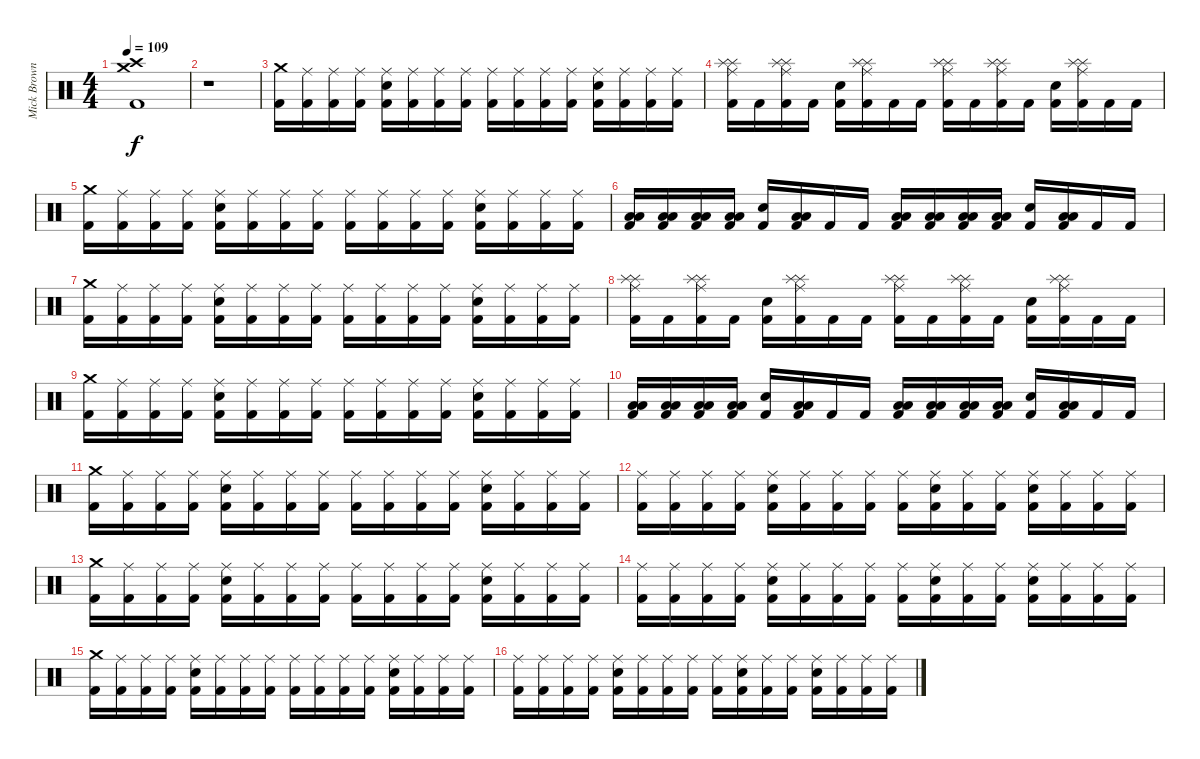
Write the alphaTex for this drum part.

\track ("Mick Brown" "Mick Brown") {instrument percussion}
\staff {score}
\articulation defaults
\ts (4 4)
\tempo 109
\clef neutral
\ks c
("Crash high (hit)" "Crash medium (hit)" "Kick (hit) 2").1{dy f} |
r.1 |
("Crash medium (hit)" "Kick (hit) 2").16 ("Ride (middle)" "Kick (hit) 2").16 ("Ride (middle)" "Kick (hit) 2").16 ("Ride (middle)" "Kick (hit) 2").16 ("Ride (middle)" "Snare (hit) 2" "Kick (hit) 2").16 ("Ride (middle)" "Kick (hit) 2").16 ("Ride (middle)" "Kick (hit) 2").16 ("Ride (middle)" "Kick (hit) 2").16 ("Ride (middle)" "Kick (hit) 2").16 ("Ride (middle)" "Kick (hit) 2").16 ("Ride (middle)" "Kick (hit) 2").16 ("Ride (middle)" "Kick (hit) 2").16 ("Ride (middle)" "Snare (hit) 2" "Kick (hit) 2").16 ("Ride (middle)" "Kick (hit) 2").16 ("Ride (middle)" "Kick (hit) 2").16 ("Ride (middle)" "Kick (hit) 2").16 |
("Splash (hit)" "Ride (middle)" "Splash (hit)" "Kick (hit) 2").16 "Kick (hit) 2".16 ("Splash (hit)" "Ride (middle)" "Splash (hit)" "Kick (hit) 2").16 "Kick (hit) 2".16 ("Snare (hit) 2" "Kick (hit) 2").16 ("Splash (hit)" "Ride (middle)" "Splash (hit)" "Kick (hit) 2").16 "Kick (hit) 2".16 "Kick (hit) 2".16 ("Splash (hit)" "Ride (middle)" "Splash (hit)" "Kick (hit) 2").16 "Kick (hit) 2".16 ("Splash (hit)" "Ride (middle)" "Splash (hit)" "Kick (hit) 2").16 "Kick (hit) 2".16 ("Snare (hit) 2" "Kick (hit) 2").16 ("Splash (hit)" "Ride (middle)" "Splash (hit)" "Kick (hit) 2").16 "Kick (hit) 2".16 "Kick (hit) 2".16 |
("Crash medium (hit)" "Kick (hit) 2").16 ("Ride (middle)" "Kick (hit) 2").16 ("Ride (middle)" "Kick (hit) 2").16 ("Ride (middle)" "Kick (hit) 2").16 ("Ride (middle)" "Snare (hit) 2" "Kick (hit) 2").16 ("Ride (middle)" "Kick (hit) 2").16 ("Ride (middle)" "Kick (hit) 2").16 ("Ride (middle)" "Kick (hit) 2").16 ("Ride (middle)" "Kick (hit) 2").16 ("Ride (middle)" "Kick (hit) 2").16 ("Ride (middle)" "Kick (hit) 2").16 ("Ride (middle)" "Kick (hit) 2").16 ("Ride (middle)" "Snare (hit) 2" "Kick (hit) 2").16 ("Ride (middle)" "Kick (hit) 2").16 ("Ride (middle)" "Kick (hit) 2").16 ("Ride (middle)" "Kick (hit) 2").16 |
("Low Floor Tom (hit)" "Low Floor Tom (hit)" "Kick (hit) 2").16 ("Low Floor Tom (hit)" "Low Floor Tom (hit)" "Kick (hit) 2").16 ("Low Floor Tom (hit)" "Low Floor Tom (hit)" "Kick (hit) 2").16 ("Low Floor Tom (hit)" "Low Floor Tom (hit)" "Kick (hit) 2").16 ("Snare (hit) 2" "Kick (hit) 2").16 ("Low Floor Tom (hit)" "Low Floor Tom (hit)" "Kick (hit) 2").16 "Kick (hit) 2".16 "Kick (hit) 2".16 ("Low Floor Tom (hit)" "Low Floor Tom (hit)" "Kick (hit) 2").16 ("Low Floor Tom (hit)" "Low Floor Tom (hit)" "Kick (hit) 2").16 ("Low Floor Tom (hit)" "Low Floor Tom (hit)" "Kick (hit) 2").16 ("Low Floor Tom (hit)" "Low Floor Tom (hit)" "Kick (hit) 2").16 ("Snare (hit) 2" "Kick (hit) 2").16 ("Low Floor Tom (hit)" "Low Floor Tom (hit)" "Kick (hit) 2").16 "Kick (hit) 2".16 "Kick (hit) 2".16 |
("Crash medium (hit)" "Kick (hit) 2").16 ("Ride (middle)" "Kick (hit) 2").16 ("Ride (middle)" "Kick (hit) 2").16 ("Ride (middle)" "Kick (hit) 2").16 ("Ride (middle)" "Snare (hit) 2" "Kick (hit) 2").16 ("Ride (middle)" "Kick (hit) 2").16 ("Ride (middle)" "Kick (hit) 2").16 ("Ride (middle)" "Kick (hit) 2").16 ("Ride (middle)" "Kick (hit) 2").16 ("Ride (middle)" "Kick (hit) 2").16 ("Ride (middle)" "Kick (hit) 2").16 ("Ride (middle)" "Kick (hit) 2").16 ("Ride (middle)" "Snare (hit) 2" "Kick (hit) 2").16 ("Ride (middle)" "Kick (hit) 2").16 ("Ride (middle)" "Kick (hit) 2").16 ("Ride (middle)" "Kick (hit) 2").16 |
("Splash (hit)" "Ride (middle)" "Splash (hit)" "Kick (hit) 2").16 "Kick (hit) 2".16 ("Splash (hit)" "Ride (middle)" "Splash (hit)" "Kick (hit) 2").16 "Kick (hit) 2".16 ("Snare (hit) 2" "Kick (hit) 2").16 ("Splash (hit)" "Ride (middle)" "Splash (hit)" "Kick (hit) 2").16 "Kick (hit) 2".16 "Kick (hit) 2".16 ("Splash (hit)" "Ride (middle)" "Splash (hit)" "Kick (hit) 2").16 "Kick (hit) 2".16 ("Splash (hit)" "Ride (middle)" "Splash (hit)" "Kick (hit) 2").16 "Kick (hit) 2".16 ("Snare (hit) 2" "Kick (hit) 2").16 ("Splash (hit)" "Ride (middle)" "Splash (hit)" "Kick (hit) 2").16 "Kick (hit) 2".16 "Kick (hit) 2".16 |
("Crash medium (hit)" "Kick (hit) 2").16 ("Ride (middle)" "Kick (hit) 2").16 ("Ride (middle)" "Kick (hit) 2").16 ("Ride (middle)" "Kick (hit) 2").16 ("Ride (middle)" "Snare (hit) 2" "Kick (hit) 2").16 ("Ride (middle)" "Kick (hit) 2").16 ("Ride (middle)" "Kick (hit) 2").16 ("Ride (middle)" "Kick (hit) 2").16 ("Ride (middle)" "Kick (hit) 2").16 ("Ride (middle)" "Kick (hit) 2").16 ("Ride (middle)" "Kick (hit) 2").16 ("Ride (middle)" "Kick (hit) 2").16 ("Ride (middle)" "Snare (hit) 2" "Kick (hit) 2").16 ("Ride (middle)" "Kick (hit) 2").16 ("Ride (middle)" "Kick (hit) 2").16 ("Ride (middle)" "Kick (hit) 2").16 |
("Low Floor Tom (hit)" "Low Floor Tom (hit)" "Kick (hit) 2").16 ("Low Floor Tom (hit)" "Low Floor Tom (hit)" "Kick (hit) 2").16 ("Low Floor Tom (hit)" "Low Floor Tom (hit)" "Kick (hit) 2").16 ("Low Floor Tom (hit)" "Low Floor Tom (hit)" "Kick (hit) 2").16 ("Snare (hit) 2" "Kick (hit) 2").16 ("Low Floor Tom (hit)" "Low Floor Tom (hit)" "Kick (hit) 2").16 "Kick (hit) 2".16 "Kick (hit) 2".16 ("Low Floor Tom (hit)" "Low Floor Tom (hit)" "Kick (hit) 2").16 ("Low Floor Tom (hit)" "Low Floor Tom (hit)" "Kick (hit) 2").16 ("Low Floor Tom (hit)" "Low Floor Tom (hit)" "Kick (hit) 2").16 ("Low Floor Tom (hit)" "Low Floor Tom (hit)" "Kick (hit) 2").16 ("Snare (hit) 2" "Kick (hit) 2").16 ("Low Floor Tom (hit)" "Low Floor Tom (hit)" "Kick (hit) 2").16 "Kick (hit) 2".16 "Kick (hit) 2".16 |
("Crash medium (hit)" "Kick (hit) 2").16 ("Ride (middle)" "Kick (hit) 2").16 ("Ride (middle)" "Kick (hit) 2").16 ("Ride (middle)" "Kick (hit) 2").16 ("Ride (middle)" "Snare (hit) 2" "Kick (hit) 2").16 ("Ride (middle)" "Kick (hit) 2").16 ("Ride (middle)" "Kick (hit) 2").16 ("Ride (middle)" "Kick (hit) 2").16 ("Ride (middle)" "Kick (hit) 2").16 ("Ride (middle)" "Kick (hit) 2").16 ("Ride (middle)" "Kick (hit) 2").16 ("Ride (middle)" "Kick (hit) 2").16 ("Ride (middle)" "Snare (hit) 2" "Kick (hit) 2").16 ("Ride (middle)" "Kick (hit) 2").16 ("Ride (middle)" "Kick (hit) 2").16 ("Ride (middle)" "Kick (hit) 2").16 |
("Ride (middle)" "Kick (hit) 2").16 ("Ride (middle)" "Kick (hit) 2").16 ("Ride (middle)" "Kick (hit) 2").16 ("Ride (middle)" "Kick (hit) 2").16 ("Ride (middle)" "Snare (hit) 2" "Kick (hit) 2").16 ("Ride (middle)" "Kick (hit) 2").16 ("Ride (middle)" "Kick (hit) 2").16 ("Ride (middle)" "Kick (hit) 2").16 ("Ride (middle)" "Kick (hit) 2").16 ("Ride (middle)" "Snare (hit) 2" "Kick (hit) 2").16 ("Ride (middle)" "Kick (hit) 2").16 ("Ride (middle)" "Kick (hit) 2").16 ("Ride (middle)" "Snare (hit) 2" "Kick (hit) 2").16 ("Ride (middle)" "Kick (hit) 2").16 ("Ride (middle)" "Kick (hit) 2").16 ("Ride (middle)" "Kick (hit) 2").16 |
("Crash medium (hit)" "Kick (hit) 2").16 ("Ride (middle)" "Kick (hit) 2").16 ("Ride (middle)" "Kick (hit) 2").16 ("Ride (middle)" "Kick (hit) 2").16 ("Ride (middle)" "Snare (hit) 2" "Kick (hit) 2").16 ("Ride (middle)" "Kick (hit) 2").16 ("Ride (middle)" "Kick (hit) 2").16 ("Ride (middle)" "Kick (hit) 2").16 ("Ride (middle)" "Kick (hit) 2").16 ("Ride (middle)" "Kick (hit) 2").16 ("Ride (middle)" "Kick (hit) 2").16 ("Ride (middle)" "Kick (hit) 2").16 ("Ride (middle)" "Snare (hit) 2" "Kick (hit) 2").16 ("Ride (middle)" "Kick (hit) 2").16 ("Ride (middle)" "Kick (hit) 2").16 ("Ride (middle)" "Kick (hit) 2").16 |
("Ride (middle)" "Kick (hit) 2").16 ("Ride (middle)" "Kick (hit) 2").16 ("Ride (middle)" "Kick (hit) 2").16 ("Ride (middle)" "Kick (hit) 2").16 ("Ride (middle)" "Snare (hit) 2" "Kick (hit) 2").16 ("Ride (middle)" "Kick (hit) 2").16 ("Ride (middle)" "Kick (hit) 2").16 ("Ride (middle)" "Kick (hit) 2").16 ("Ride (middle)" "Kick (hit) 2").16 ("Ride (middle)" "Snare (hit) 2" "Kick (hit) 2").16 ("Ride (middle)" "Kick (hit) 2").16 ("Ride (middle)" "Kick (hit) 2").16 ("Ride (middle)" "Snare (hit) 2" "Kick (hit) 2").16 ("Ride (middle)" "Kick (hit) 2").16 ("Ride (middle)" "Kick (hit) 2").16 ("Ride (middle)" "Kick (hit) 2").16 |
("Crash medium (hit)" "Kick (hit) 2").16 ("Ride (middle)" "Kick (hit) 2").16 ("Ride (middle)" "Kick (hit) 2").16 ("Ride (middle)" "Kick (hit) 2").16 ("Ride (middle)" "Snare (hit) 2" "Kick (hit) 2").16 ("Ride (middle)" "Kick (hit) 2").16 ("Ride (middle)" "Kick (hit) 2").16 ("Ride (middle)" "Kick (hit) 2").16 ("Ride (middle)" "Kick (hit) 2").16 ("Ride (middle)" "Kick (hit) 2").16 ("Ride (middle)" "Kick (hit) 2").16 ("Ride (middle)" "Kick (hit) 2").16 ("Ride (middle)" "Snare (hit) 2" "Kick (hit) 2").16 ("Ride (middle)" "Kick (hit) 2").16 ("Ride (middle)" "Kick (hit) 2").16 ("Ride (middle)" "Kick (hit) 2").16 |
("Ride (middle)" "Kick (hit) 2").16 ("Ride (middle)" "Kick (hit) 2").16 ("Ride (middle)" "Kick (hit) 2").16 ("Ride (middle)" "Kick (hit) 2").16 ("Ride (middle)" "Snare (hit) 2" "Kick (hit) 2").16 ("Ride (middle)" "Kick (hit) 2").16 ("Ride (middle)" "Kick (hit) 2").16 ("Ride (middle)" "Kick (hit) 2").16 ("Ride (middle)" "Kick (hit) 2").16 ("Ride (middle)" "Snare (hit) 2" "Kick (hit) 2").16 ("Ride (middle)" "Kick (hit) 2").16 ("Ride (middle)" "Kick (hit) 2").16 ("Ride (middle)" "Snare (hit) 2" "Kick (hit) 2").16 ("Ride (middle)" "Kick (hit) 2").16 ("Ride (middle)" "Kick (hit) 2").16 ("Ride (middle)" "Kick (hit) 2").16
